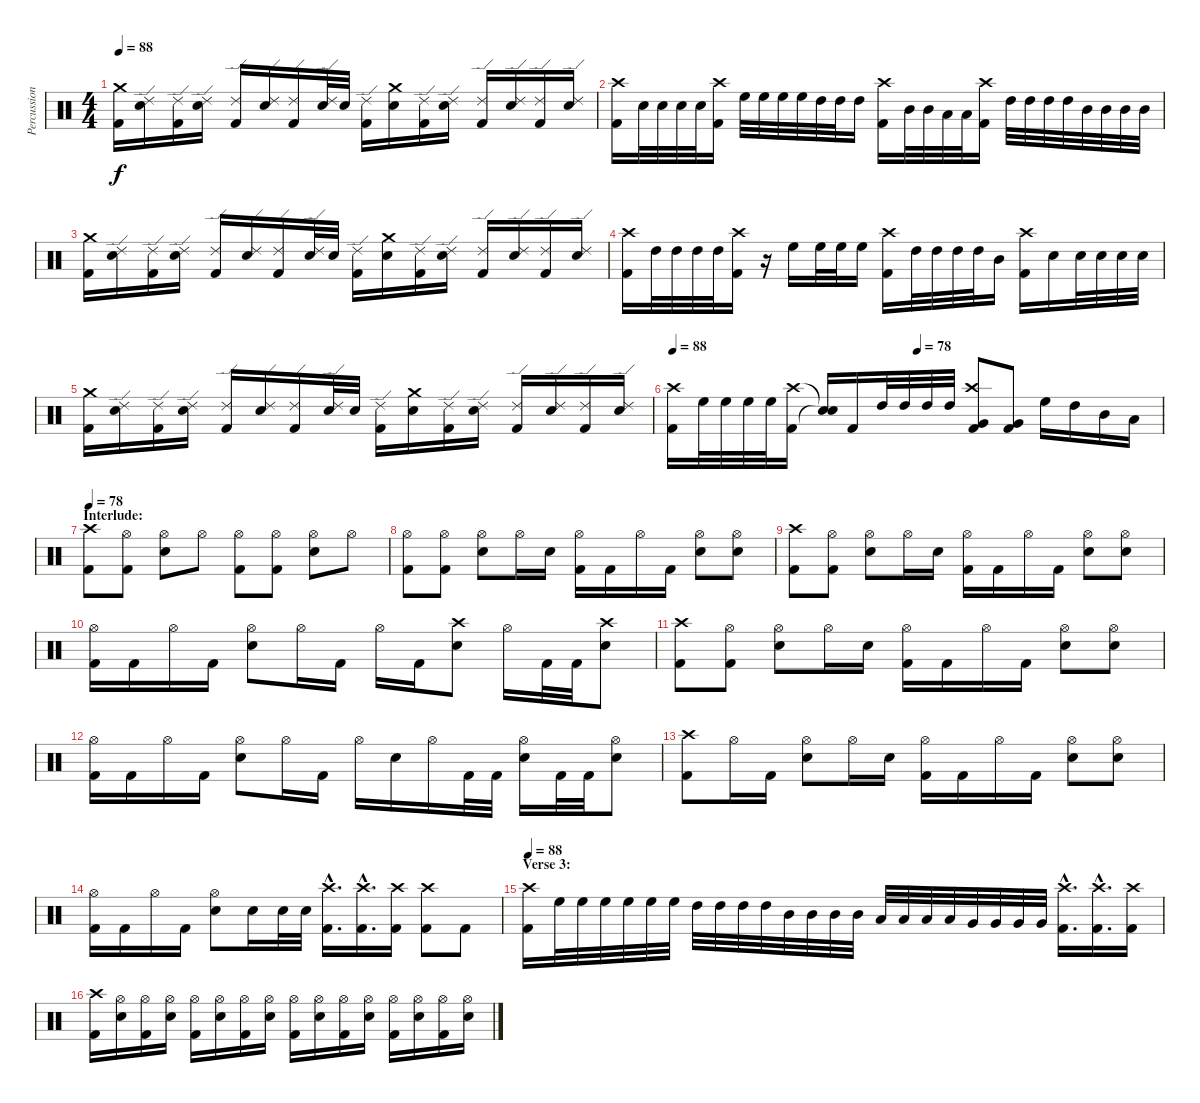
\track ("Percussion" "Percussion") {instrument percussion}
\staff {score}
\articulation defaults
\ts (4 4)
\tempo 88
\clef neutral
\ks c
("Crash medium (hit)" "Kick (hit) 2").16{dy f} ("Ride (edge) 2" "Electric Snare (hit)").16 ("Ride (edge) 2" "Kick (hit) 2").16 ("Ride (edge) 2" "Electric Snare (hit)").16 ("Ride (edge) 2" "Kick (hit) 2").16 ("Ride (edge) 2" "Electric Snare (hit)").16 ("Ride (edge) 2" "Kick (hit) 2").16 ("Ride (edge) 2" "Electric Snare (hit)").32 "Electric Snare (hit)".32 ("Ride (edge) 2" "Kick (hit) 2").16 ("Crash medium (hit)" "Electric Snare (hit)").16 ("Ride (edge) 2" "Kick (hit) 2").16 ("Ride (edge) 2" "Electric Snare (hit)").16 ("Ride (edge) 2" "Kick (hit) 2").16 ("Ride (edge) 2" "Electric Snare (hit)").16 ("Ride (edge) 2" "Kick (hit) 2").16 ("Ride (edge) 2" "Electric Snare (hit)").16 |
("Crash high (hit)" "Kick (hit) 2").16 "Electric Snare (hit)".32 "Electric Snare (hit)".32 "Electric Snare (hit)".32 "Electric Snare (hit)".32 ("Crash high (hit)" "Kick (hit) 2").16 "High Floor Tom (hit)".32 "High Floor Tom (hit)".32 "High Floor Tom (hit)".32 "High Floor Tom (hit)".32 "High Tom (hit)".32 "High Tom (hit)".32 "High Tom (hit)".16 ("Crash high (hit)" "Kick (hit) 2").16 "Mid Tom (hit)".32 "Mid Tom (hit)".32 "Low Tom (hit)".32 "Low Tom (hit)".32 ("Crash high (hit)" "Kick (hit) 2").16 "High Tom (hit)".32 "High Tom (hit)".32 "High Tom (hit)".32 "High Tom (hit)".32 "Mid Tom (hit)".32 "Mid Tom (hit)".32 "Mid Tom (hit)".32 "Mid Tom (hit)".32 |
("Crash medium (hit)" "Kick (hit) 2").16 ("Ride (edge) 2" "Electric Snare (hit)").16 ("Ride (edge) 2" "Kick (hit) 2").16 ("Ride (edge) 2" "Electric Snare (hit)").16 ("Ride (edge) 2" "Kick (hit) 2").16 ("Ride (edge) 2" "Electric Snare (hit)").16 ("Ride (edge) 2" "Kick (hit) 2").16 ("Ride (edge) 2" "Electric Snare (hit)").32 "Electric Snare (hit)".32 ("Ride (edge) 2" "Kick (hit) 2").16 ("Crash medium (hit)" "Electric Snare (hit)").16 ("Ride (edge) 2" "Kick (hit) 2").16 ("Ride (edge) 2" "Electric Snare (hit)").16 ("Ride (edge) 2" "Kick (hit) 2").16 ("Ride (edge) 2" "Electric Snare (hit)").16 ("Ride (edge) 2" "Kick (hit) 2").16 ("Ride (edge) 2" "Electric Snare (hit)").16 |
("Crash high (hit)" "Kick (hit) 2").16 "High Tom (hit)".32 "High Tom (hit)".32 "High Tom (hit)".32 "High Tom (hit)".32 ("Crash high (hit)" "Kick (hit) 2").16 r.16 "High Floor Tom (hit)".16 "High Floor Tom (hit)".32 "High Floor Tom (hit)".32 "High Floor Tom (hit)".16 ("Crash high (hit)" "Kick (hit) 2").16 "High Tom (hit)".32 "High Tom (hit)".32 "High Tom (hit)".32 "High Tom (hit)".32 "Mid Tom (hit)".16 ("Crash high (hit)" "Kick (hit) 2").16 "Electric Snare (hit)".16 "Electric Snare (hit)".32 "Electric Snare (hit)".32 "Electric Snare (hit)".32 "Electric Snare (hit)".32 |
("Crash medium (hit)" "Kick (hit) 2").16 ("Ride (edge) 2" "Electric Snare (hit)").16 ("Ride (edge) 2" "Kick (hit) 2").16 ("Ride (edge) 2" "Electric Snare (hit)").16 ("Ride (edge) 2" "Kick (hit) 2").16 ("Ride (edge) 2" "Electric Snare (hit)").16 ("Ride (edge) 2" "Kick (hit) 2").16 ("Ride (edge) 2" "Electric Snare (hit)").32 "Electric Snare (hit)".32 ("Ride (edge) 2" "Kick (hit) 2").16 ("Crash medium (hit)" "Electric Snare (hit)").16 ("Ride (edge) 2" "Kick (hit) 2").16 ("Ride (edge) 2" "Electric Snare (hit)").16 ("Ride (edge) 2" "Kick (hit) 2").16 ("Ride (edge) 2" "Electric Snare (hit)").16 ("Ride (edge) 2" "Kick (hit) 2").16 ("Ride (edge) 2" "Electric Snare (hit)").16 |
\tempo 88
\tempo (78 0.5)
("Crash high (hit)" "Kick (hit) 2").16 "High Floor Tom (hit)".32 "High Floor Tom (hit)".32 "High Floor Tom (hit)".32 "High Floor Tom (hit)".32 ("Crash high (hit)" "Kick (hit) 2").16 ("Snare (hit)"{t} "Snare (hit)"{t}).16 "Kick (hit) 2".16 "High Tom (hit)".32 "High Tom (hit)".32 "High Tom (hit)".32 "High Tom (hit)".32 ("Crash high (hit)" "Very Low Tom (hit)" "Kick (hit) 2").8 ("Very Low Tom (hit)" "Kick (hit) 2").8 "High Floor Tom (hit)".16 "High Tom (hit)".16 "Mid Tom (hit)".16 "Low Tom (hit)".16 |
\section ("" "Interlude:")
\tempo 78
("Crash high (hit)" "Kick (hit) 2").8 ("Hi-Hat (open)" "Kick (hit) 2").8 ("Hi-Hat (open)" "Electric Snare (hit)").8 "Hi-Hat (open)".8 ("Hi-Hat (open)" "Kick (hit) 2").8 ("Hi-Hat (open)" "Kick (hit) 2").8 ("Hi-Hat (open)" "Electric Snare (hit)").8 "Hi-Hat (open)".8 |
("Hi-Hat (open)" "Kick (hit) 2").8 ("Hi-Hat (open)" "Kick (hit) 2").8 ("Hi-Hat (open)" "Electric Snare (hit)").8 "Hi-Hat (open)".16 "Electric Snare (hit)".16 ("Hi-Hat (open)" "Kick (hit) 2").16 "Kick (hit) 2".16 "Hi-Hat (open)".16 "Kick (hit) 2".16 ("Hi-Hat (open)" "Electric Snare (hit)").8 ("Hi-Hat (open)" "Electric Snare (hit)").8 |
("Crash high (hit)" "Kick (hit) 2").8 ("Hi-Hat (open)" "Kick (hit) 2").8 ("Hi-Hat (open)" "Electric Snare (hit)").8 "Hi-Hat (open)".16 "Electric Snare (hit)".16 ("Hi-Hat (open)" "Kick (hit) 2").16 "Kick (hit) 2".16 "Hi-Hat (open)".16 "Kick (hit) 2".16 ("Hi-Hat (open)" "Electric Snare (hit)").8 ("Hi-Hat (open)" "Electric Snare (hit)").8 |
("Hi-Hat (open)" "Kick (hit) 2").16 "Kick (hit) 2".16 "Hi-Hat (open)".16 "Kick (hit) 2".16 ("Hi-Hat (open)" "Electric Snare (hit)").8 "Hi-Hat (open)".16 "Kick (hit) 2".16 "Hi-Hat (open)".16 "Kick (hit) 2".16 ("Crash high (hit)" "Electric Snare (hit)").8 "Hi-Hat (open)".16 "Kick (hit) 2".32 "Kick (hit) 2".32 ("Crash high (hit)" "Electric Snare (hit)").8 |
("Crash high (hit)" "Kick (hit) 2").8 ("Hi-Hat (open)" "Kick (hit) 2").8 ("Hi-Hat (open)" "Electric Snare (hit)").8 "Hi-Hat (open)".16 "Electric Snare (hit)".16 ("Hi-Hat (open)" "Kick (hit) 2").16 "Kick (hit) 2".16 "Hi-Hat (open)".16 "Kick (hit) 2".16 ("Hi-Hat (open)" "Electric Snare (hit)").8 ("Hi-Hat (open)" "Electric Snare (hit)").8 |
("Hi-Hat (open)" "Kick (hit) 2").16 "Kick (hit) 2".16 "Hi-Hat (open)".16 "Kick (hit) 2".16 ("Hi-Hat (open)" "Electric Snare (hit)").8 "Hi-Hat (open)".16 "Kick (hit) 2".16 "Hi-Hat (open)".16 "Electric Snare (hit)".16 "Hi-Hat (open)".16 "Kick (hit) 2".32 "Kick (hit) 2".32 ("Hi-Hat (open)" "Electric Snare (hit)").16 "Kick (hit) 2".32 "Kick (hit) 2".32 ("Hi-Hat (open)" "Electric Snare (hit)").8 |
("Crash high (hit)" "Kick (hit) 2").8 "Hi-Hat (open)".16 "Kick (hit) 2".16 ("Hi-Hat (open)" "Electric Snare (hit)").8 "Hi-Hat (open)".16 "Electric Snare (hit)".16 ("Hi-Hat (open)" "Kick (hit) 2").16 "Kick (hit) 2".16 "Hi-Hat (open)".16 "Kick (hit) 2".16 ("Hi-Hat (open)" "Electric Snare (hit)").8 ("Hi-Hat (open)" "Electric Snare (hit)").8 |
("Hi-Hat (open)" "Kick (hit) 2").16 "Kick (hit) 2".16 "Hi-Hat (open)".16 "Kick (hit) 2".16 ("Hi-Hat (open)" "Electric Snare (hit)").8 "Electric Snare (hit)".16 "Electric Snare (hit)".32 "Electric Snare (hit)".32 ("Crash high (hit)"{hac} "Kick (hit) 2"{hac}).16{d} ("Crash high (hit)"{hac} "Kick (hit) 2"{hac}).16{d} ("Crash high (hit)" "Kick (hit) 2").16 ("Crash high (hit)" "Kick (hit) 2").8 "Kick (hit) 2".8 |
\section ("" "Verse 3:")
\tempo 88
("Crash high (hit)" "Kick (hit) 2").16 "High Floor Tom (hit)".32 "High Floor Tom (hit)".32 "High Floor Tom (hit)".32 "High Floor Tom (hit)".32 "High Floor Tom (hit)".32 "High Floor Tom (hit)".32 "High Tom (hit)".32 "High Tom (hit)".32 "High Tom (hit)".32 "High Tom (hit)".32 "Mid Tom (hit)".32 "Mid Tom (hit)".32 "Mid Tom (hit)".32 "Mid Tom (hit)".32 "Low Tom (hit)".32 "Low Tom (hit)".32 "Low Tom (hit)".32 "Low Tom (hit)".32 "Very Low Tom (hit)".32 "Very Low Tom (hit)".32 "Very Low Tom (hit)".32 "Very Low Tom (hit)".32 ("Crash high (hit)"{hac} "Kick (hit) 2"{hac}).16{d} ("Crash high (hit)"{hac} "Kick (hit) 2"{hac}).16{d} ("Crash high (hit)" "Kick (hit) 2").16 |
("Crash high (hit)" "Kick (hit) 2").16 ("Hi-Hat (open)" "Electric Snare (hit)").16 ("Hi-Hat (open)" "Kick (hit) 2").16 ("Hi-Hat (open)" "Electric Snare (hit)").16 ("Hi-Hat (open)" "Kick (hit) 2").16 ("Hi-Hat (open)" "Electric Snare (hit)").16 ("Hi-Hat (open)" "Kick (hit) 2").16 ("Hi-Hat (open)" "Electric Snare (hit)").16 ("Hi-Hat (open)" "Kick (hit) 2").16 ("Hi-Hat (open)" "Electric Snare (hit)").16 ("Hi-Hat (open)" "Kick (hit) 2").16 ("Hi-Hat (open)" "Electric Snare (hit)").16 ("Hi-Hat (open)" "Kick (hit) 2").16 ("Hi-Hat (open)" "Electric Snare (hit)").16 ("Hi-Hat (open)" "Kick (hit) 2").16 ("Hi-Hat (open)" "Electric Snare (hit)").16
